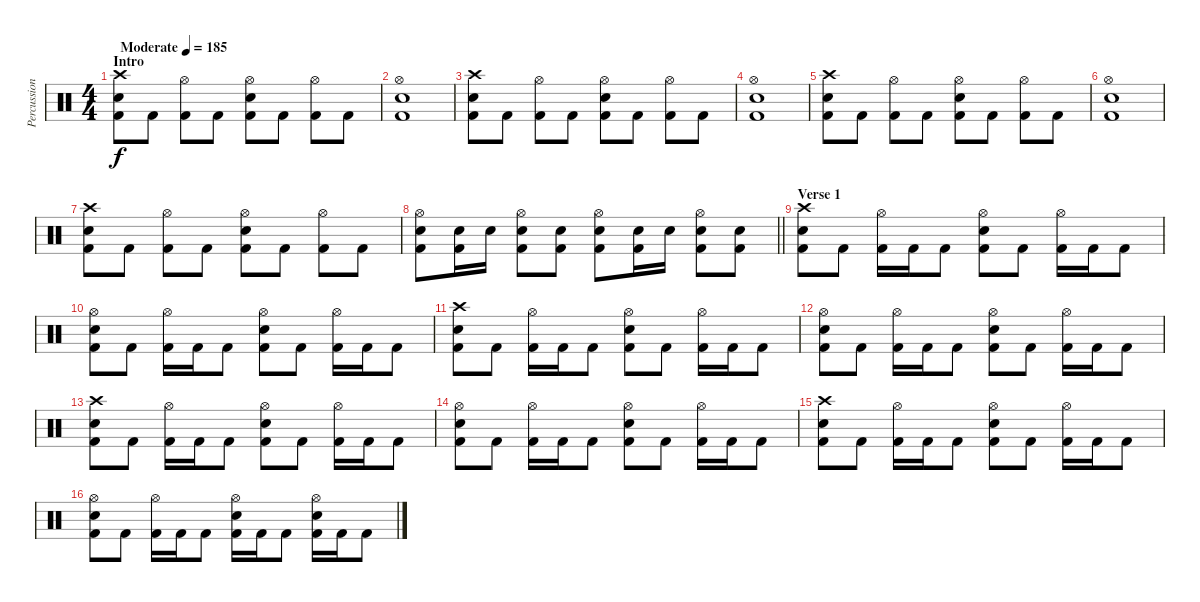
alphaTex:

\track ("Percussion" "Percussion") {instrument percussion}
\staff {score}
\articulation defaults
\ts (4 4)
\section ("" "Intro")
\tempo (185 "Moderate")
\clef neutral
\ks c
("Crash high (hit)" "Snare (hit) 2" "Kick (hit) 2").8{dy f} "Kick (hit) 2".8 ("Hi-Hat (open)" "Kick (hit) 2").8 "Kick (hit) 2".8 ("Hi-Hat (open)" "Snare (hit) 2" "Kick (hit) 2").8 "Kick (hit) 2".8 ("Hi-Hat (open)" "Kick (hit) 2").8 "Kick (hit) 2".8 |
("Hi-Hat (open)" "Snare (hit) 2" "Kick (hit) 2").1 |
("Crash high (hit)" "Snare (hit) 2" "Kick (hit) 2").8 "Kick (hit) 2".8 ("Hi-Hat (open)" "Kick (hit) 2").8 "Kick (hit) 2".8 ("Hi-Hat (open)" "Snare (hit) 2" "Kick (hit) 2").8 "Kick (hit) 2".8 ("Hi-Hat (open)" "Kick (hit) 2").8 "Kick (hit) 2".8 |
("Hi-Hat (open)" "Snare (hit) 2" "Kick (hit) 2").1 |
("Crash high (hit)" "Snare (hit) 2" "Kick (hit) 2").8 "Kick (hit) 2".8 ("Hi-Hat (open)" "Kick (hit) 2").8 "Kick (hit) 2".8 ("Hi-Hat (open)" "Snare (hit) 2" "Kick (hit) 2").8 "Kick (hit) 2".8 ("Hi-Hat (open)" "Kick (hit) 2").8 "Kick (hit) 2".8 |
("Hi-Hat (open)" "Snare (hit) 2" "Kick (hit) 2").1 |
("Crash high (hit)" "Snare (hit) 2" "Kick (hit) 2").8 "Kick (hit) 2".8 ("Hi-Hat (open)" "Kick (hit) 2").8 "Kick (hit) 2".8 ("Hi-Hat (open)" "Snare (hit) 2" "Kick (hit) 2").8 "Kick (hit) 2".8 ("Hi-Hat (open)" "Kick (hit) 2").8 "Kick (hit) 2".8 |
\barLineRight lightlight
("Hi-Hat (open)" "Snare (hit) 2" "Kick (hit) 2").8 ("Snare (hit) 2" "Kick (hit) 2").16 "Snare (hit) 2".16 ("Hi-Hat (open)" "Snare (hit) 2" "Kick (hit) 2").8 ("Snare (hit) 2" "Kick (hit) 2").8 ("Hi-Hat (open)" "Snare (hit) 2" "Kick (hit) 2").8 ("Snare (hit) 2" "Kick (hit) 2").16 "Snare (hit) 2".16 ("Hi-Hat (open)" "Snare (hit) 2" "Kick (hit) 2").8 ("Snare (hit) 2" "Kick (hit) 2").8 |
\section ("" "Verse 1")
("Crash high (hit)" "Snare (hit) 2" "Kick (hit) 2").8 "Kick (hit) 2".8 ("Hi-Hat (open)" "Kick (hit) 2").16 "Kick (hit) 2".16 "Kick (hit) 2".8 ("Hi-Hat (open)" "Snare (hit) 2" "Kick (hit) 2").8 "Kick (hit) 2".8 ("Hi-Hat (open)" "Kick (hit) 2").16 "Kick (hit) 2".16 "Kick (hit) 2".8 |
("Hi-Hat (open)" "Snare (hit) 2" "Kick (hit) 2").8 "Kick (hit) 2".8 ("Hi-Hat (open)" "Kick (hit) 2").16 "Kick (hit) 2".16 "Kick (hit) 2".8 ("Hi-Hat (open)" "Snare (hit) 2" "Kick (hit) 2").8 "Kick (hit) 2".8 ("Hi-Hat (open)" "Kick (hit) 2").16 "Kick (hit) 2".16 "Kick (hit) 2".8 |
("Crash high (hit)" "Snare (hit) 2" "Kick (hit) 2").8 "Kick (hit) 2".8 ("Hi-Hat (open)" "Kick (hit) 2").16 "Kick (hit) 2".16 "Kick (hit) 2".8 ("Hi-Hat (open)" "Snare (hit) 2" "Kick (hit) 2").8 "Kick (hit) 2".8 ("Hi-Hat (open)" "Kick (hit) 2").16 "Kick (hit) 2".16 "Kick (hit) 2".8 |
("Hi-Hat (open)" "Snare (hit) 2" "Kick (hit) 2").8 "Kick (hit) 2".8 ("Hi-Hat (open)" "Kick (hit) 2").16 "Kick (hit) 2".16 "Kick (hit) 2".8 ("Hi-Hat (open)" "Snare (hit) 2" "Kick (hit) 2").8 "Kick (hit) 2".8 ("Hi-Hat (open)" "Kick (hit) 2").16 "Kick (hit) 2".16 "Kick (hit) 2".8 |
("Crash high (hit)" "Snare (hit) 2" "Kick (hit) 2").8 "Kick (hit) 2".8 ("Hi-Hat (open)" "Kick (hit) 2").16 "Kick (hit) 2".16 "Kick (hit) 2".8 ("Hi-Hat (open)" "Snare (hit) 2" "Kick (hit) 2").8 "Kick (hit) 2".8 ("Hi-Hat (open)" "Kick (hit) 2").16 "Kick (hit) 2".16 "Kick (hit) 2".8 |
("Hi-Hat (open)" "Snare (hit) 2" "Kick (hit) 2").8 "Kick (hit) 2".8 ("Hi-Hat (open)" "Kick (hit) 2").16 "Kick (hit) 2".16 "Kick (hit) 2".8 ("Hi-Hat (open)" "Snare (hit) 2" "Kick (hit) 2").8 "Kick (hit) 2".8 ("Hi-Hat (open)" "Kick (hit) 2").16 "Kick (hit) 2".16 "Kick (hit) 2".8 |
("Crash high (hit)" "Snare (hit) 2" "Kick (hit) 2").8 "Kick (hit) 2".8 ("Hi-Hat (open)" "Kick (hit) 2").16 "Kick (hit) 2".16 "Kick (hit) 2".8 ("Hi-Hat (open)" "Snare (hit) 2" "Kick (hit) 2").8 "Kick (hit) 2".8 ("Hi-Hat (open)" "Kick (hit) 2").16 "Kick (hit) 2".16 "Kick (hit) 2".8 |
("Hi-Hat (open)" "Snare (hit) 2" "Kick (hit) 2").8 "Kick (hit) 2".8 ("Hi-Hat (open)" "Kick (hit) 2").16 "Kick (hit) 2".16 "Kick (hit) 2".8 ("Hi-Hat (open)" "Snare (hit) 2" "Kick (hit) 2").16 "Kick (hit) 2".16 "Kick (hit) 2".8 ("Hi-Hat (open)" "Snare (hit) 2" "Kick (hit) 2").16 "Kick (hit) 2".16 "Kick (hit) 2".8
